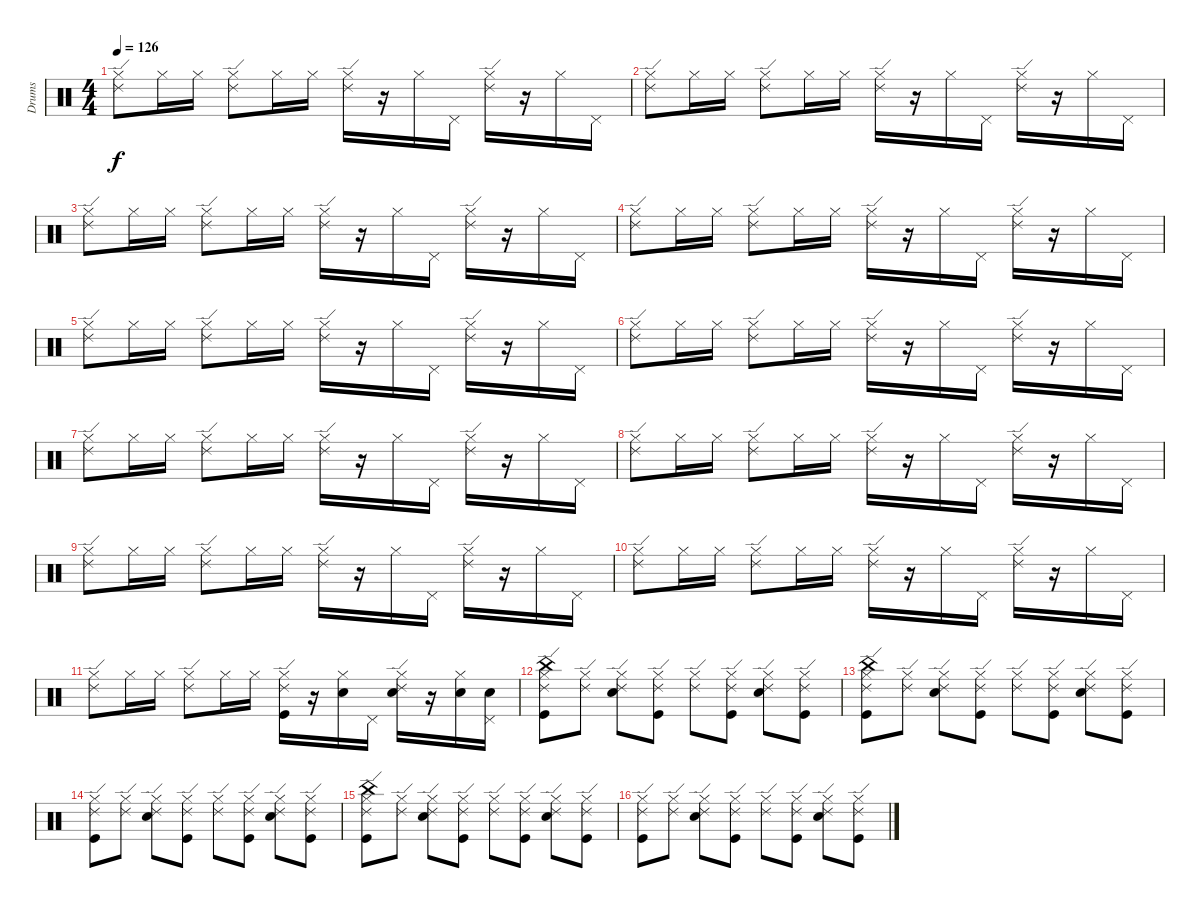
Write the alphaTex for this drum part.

\track ("Drums" "Drums") {instrument percussion}
\staff {score}
\articulation defaults
\ts (4 4)
\tempo 126
\clef neutral
\ks c
("Hi-Hat (closed)" "Ride (edge) 2").8{dy f} "Hi-Hat (closed)".16 "Hi-Hat (closed)".16 ("Hi-Hat (closed)" "Ride (edge) 2").8 "Hi-Hat (closed)".16 "Hi-Hat (closed)".16 ("Hi-Hat (closed)" "Ride (edge) 2").16 r.16 "Hi-Hat (closed)".16 "Pedal Hi-Hat (hit)".16 ("Hi-Hat (closed)" "Ride (edge) 2").16 r.16 "Hi-Hat (closed)".16 "Pedal Hi-Hat (hit)".16 |
("Hi-Hat (closed)" "Ride (edge) 2").8 "Hi-Hat (closed)".16 "Hi-Hat (closed)".16 ("Hi-Hat (closed)" "Ride (edge) 2").8 "Hi-Hat (closed)".16 "Hi-Hat (closed)".16 ("Hi-Hat (closed)" "Ride (edge) 2").16 r.16 "Hi-Hat (closed)".16 "Pedal Hi-Hat (hit)".16 ("Hi-Hat (closed)" "Ride (edge) 2").16 r.16 "Hi-Hat (closed)".16 "Pedal Hi-Hat (hit)".16 |
("Hi-Hat (closed)" "Ride (edge) 2").8 "Hi-Hat (closed)".16 "Hi-Hat (closed)".16 ("Hi-Hat (closed)" "Ride (edge) 2").8 "Hi-Hat (closed)".16 "Hi-Hat (closed)".16 ("Hi-Hat (closed)" "Ride (edge) 2").16 r.16 "Hi-Hat (closed)".16 "Pedal Hi-Hat (hit)".16 ("Hi-Hat (closed)" "Ride (edge) 2").16 r.16 "Hi-Hat (closed)".16 "Pedal Hi-Hat (hit)".16 |
("Hi-Hat (closed)" "Ride (edge) 2").8 "Hi-Hat (closed)".16 "Hi-Hat (closed)".16 ("Hi-Hat (closed)" "Ride (edge) 2").8 "Hi-Hat (closed)".16 "Hi-Hat (closed)".16 ("Hi-Hat (closed)" "Ride (edge) 2").16 r.16 "Hi-Hat (closed)".16 "Pedal Hi-Hat (hit)".16 ("Hi-Hat (closed)" "Ride (edge) 2").16 r.16 "Hi-Hat (closed)".16 "Pedal Hi-Hat (hit)".16 |
("Hi-Hat (closed)" "Ride (edge) 2").8 "Hi-Hat (closed)".16 "Hi-Hat (closed)".16 ("Hi-Hat (closed)" "Ride (edge) 2").8 "Hi-Hat (closed)".16 "Hi-Hat (closed)".16 ("Hi-Hat (closed)" "Ride (edge) 2").16 r.16 "Hi-Hat (closed)".16 "Pedal Hi-Hat (hit)".16 ("Hi-Hat (closed)" "Ride (edge) 2").16 r.16 "Hi-Hat (closed)".16 "Pedal Hi-Hat (hit)".16 |
("Hi-Hat (closed)" "Ride (edge) 2").8 "Hi-Hat (closed)".16 "Hi-Hat (closed)".16 ("Hi-Hat (closed)" "Ride (edge) 2").8 "Hi-Hat (closed)".16 "Hi-Hat (closed)".16 ("Hi-Hat (closed)" "Ride (edge) 2").16 r.16 "Hi-Hat (closed)".16 "Pedal Hi-Hat (hit)".16 ("Hi-Hat (closed)" "Ride (edge) 2").16 r.16 "Hi-Hat (closed)".16 "Pedal Hi-Hat (hit)".16 |
("Hi-Hat (closed)" "Ride (edge) 2").8 "Hi-Hat (closed)".16 "Hi-Hat (closed)".16 ("Hi-Hat (closed)" "Ride (edge) 2").8 "Hi-Hat (closed)".16 "Hi-Hat (closed)".16 ("Hi-Hat (closed)" "Ride (edge) 2").16 r.16 "Hi-Hat (closed)".16 "Pedal Hi-Hat (hit)".16 ("Hi-Hat (closed)" "Ride (edge) 2").16 r.16 "Hi-Hat (closed)".16 "Pedal Hi-Hat (hit)".16 |
("Hi-Hat (closed)" "Ride (edge) 2").8 "Hi-Hat (closed)".16 "Hi-Hat (closed)".16 ("Hi-Hat (closed)" "Ride (edge) 2").8 "Hi-Hat (closed)".16 "Hi-Hat (closed)".16 ("Hi-Hat (closed)" "Ride (edge) 2").16 r.16 "Hi-Hat (closed)".16 "Pedal Hi-Hat (hit)".16 ("Hi-Hat (closed)" "Ride (edge) 2").16 r.16 "Hi-Hat (closed)".16 "Pedal Hi-Hat (hit)".16 |
("Hi-Hat (closed)" "Ride (edge) 2").8 "Hi-Hat (closed)".16 "Hi-Hat (closed)".16 ("Hi-Hat (closed)" "Ride (edge) 2").8 "Hi-Hat (closed)".16 "Hi-Hat (closed)".16 ("Hi-Hat (closed)" "Ride (edge) 2").16 r.16 "Hi-Hat (closed)".16 "Pedal Hi-Hat (hit)".16 ("Hi-Hat (closed)" "Ride (edge) 2").16 r.16 "Hi-Hat (closed)".16 "Pedal Hi-Hat (hit)".16 |
("Hi-Hat (closed)" "Ride (edge) 2").8 "Hi-Hat (closed)".16 "Hi-Hat (closed)".16 ("Hi-Hat (closed)" "Ride (edge) 2").8 "Hi-Hat (closed)".16 "Hi-Hat (closed)".16 ("Hi-Hat (closed)" "Ride (edge) 2").16 r.16 "Hi-Hat (closed)".16 "Pedal Hi-Hat (hit)".16 ("Hi-Hat (closed)" "Ride (edge) 2").16 r.16 "Hi-Hat (closed)".16 "Pedal Hi-Hat (hit)".16 |
("Hi-Hat (closed)" "Ride (edge) 2").8 "Hi-Hat (closed)".16 "Hi-Hat (closed)".16 ("Hi-Hat (closed)" "Ride (edge) 2").8 "Hi-Hat (closed)".16 "Hi-Hat (closed)".16 ("Kick (hit)" "Hi-Hat (closed)" "Ride (edge) 2").16 r.16 ("Electric Snare (hit)" "Hi-Hat (closed)").16 "Pedal Hi-Hat (hit)".16 ("Electric Snare (hit)" "Hi-Hat (closed)" "Ride (edge) 2").16 r.16 ("Electric Snare (hit)" "Hi-Hat (closed)").16 ("Electric Snare (hit)" "Pedal Hi-Hat (hit)").16 |
("Hi-Hat (closed)" "China (hit)" "Ride (edge) 2" "Kick (hit)").8 ("Hi-Hat (closed)" "Ride (edge) 2").8 ("Hi-Hat (closed)" "Ride (edge) 2" "Electric Snare (hit)").8 ("Hi-Hat (closed)" "Ride (edge) 2" "Kick (hit)").8 ("Hi-Hat (closed)" "Ride (edge) 2").8 ("Hi-Hat (closed)" "Ride (edge) 2" "Kick (hit)").8 ("Hi-Hat (closed)" "Ride (edge) 2" "Electric Snare (hit)").8 ("Hi-Hat (closed)" "Ride (edge) 2" "Kick (hit)").8 |
("Hi-Hat (closed)" "China (hit)" "Ride (edge) 2" "Kick (hit)").8 ("Hi-Hat (closed)" "Ride (edge) 2").8 ("Hi-Hat (closed)" "Ride (edge) 2" "Electric Snare (hit)").8 ("Hi-Hat (closed)" "Ride (edge) 2" "Kick (hit)").8 ("Hi-Hat (closed)" "Ride (edge) 2").8 ("Hi-Hat (closed)" "Ride (edge) 2" "Kick (hit)").8 ("Hi-Hat (closed)" "Ride (edge) 2" "Electric Snare (hit)").8 ("Hi-Hat (closed)" "Ride (edge) 2" "Kick (hit)").8 |
("Hi-Hat (closed)" "Ride (edge) 2" "Kick (hit)").8 ("Hi-Hat (closed)" "Ride (edge) 2").8 ("Hi-Hat (closed)" "Ride (edge) 2" "Electric Snare (hit)").8 ("Hi-Hat (closed)" "Ride (edge) 2" "Kick (hit)").8 ("Hi-Hat (closed)" "Ride (edge) 2").8 ("Hi-Hat (closed)" "Ride (edge) 2" "Kick (hit)").8 ("Hi-Hat (closed)" "Ride (edge) 2" "Electric Snare (hit)").8 ("Hi-Hat (closed)" "Ride (edge) 2" "Kick (hit)").8 |
("Hi-Hat (closed)" "China (hit)" "Ride (edge) 2" "Kick (hit)").8 ("Hi-Hat (closed)" "Ride (edge) 2").8 ("Hi-Hat (closed)" "Ride (edge) 2" "Electric Snare (hit)").8 ("Hi-Hat (closed)" "Ride (edge) 2" "Kick (hit)").8 ("Hi-Hat (closed)" "Ride (edge) 2").8 ("Hi-Hat (closed)" "Ride (edge) 2" "Kick (hit)").8 ("Hi-Hat (closed)" "Ride (edge) 2" "Electric Snare (hit)").8 ("Hi-Hat (closed)" "Ride (edge) 2" "Kick (hit)").8 |
("Hi-Hat (closed)" "Ride (edge) 2" "Kick (hit)").8 ("Hi-Hat (closed)" "Ride (edge) 2").8 ("Hi-Hat (closed)" "Ride (edge) 2" "Electric Snare (hit)").8 ("Hi-Hat (closed)" "Ride (edge) 2" "Kick (hit)").8 ("Hi-Hat (closed)" "Ride (edge) 2").8 ("Hi-Hat (closed)" "Ride (edge) 2" "Kick (hit)").8 ("Hi-Hat (closed)" "Ride (edge) 2" "Electric Snare (hit)").8 ("Hi-Hat (closed)" "Ride (edge) 2" "Kick (hit)").8
